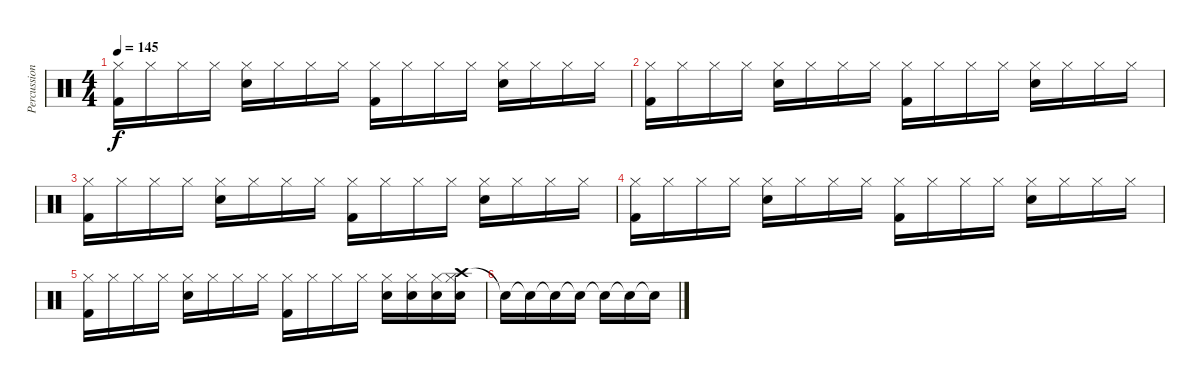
\track ("Percussion" "Percussion") {instrument percussion}
\staff {score}
\articulation defaults
\ts (4 4)
\tempo 145
\clef neutral
\ks c
("Hi-Hat (closed)" "Kick (hit) 2").16{dy f} "Hi-Hat (closed)".16 "Hi-Hat (closed)".16 "Hi-Hat (closed)".16 ("Hi-Hat (closed)" "Electric Snare (hit)").16 "Hi-Hat (closed)".16 "Hi-Hat (closed)".16 "Hi-Hat (closed)".16 ("Hi-Hat (closed)" "Kick (hit) 2").16 "Hi-Hat (closed)".16 "Hi-Hat (closed)".16 "Hi-Hat (closed)".16 ("Hi-Hat (closed)" "Electric Snare (hit)").16 "Hi-Hat (closed)".16 "Hi-Hat (closed)".16 "Hi-Hat (closed)".16 |
("Hi-Hat (closed)" "Kick (hit) 2").16 "Hi-Hat (closed)".16 "Hi-Hat (closed)".16 "Hi-Hat (closed)".16 ("Hi-Hat (closed)" "Electric Snare (hit)").16 "Hi-Hat (closed)".16 "Hi-Hat (closed)".16 "Hi-Hat (closed)".16 ("Hi-Hat (closed)" "Kick (hit) 2").16 "Hi-Hat (closed)".16 "Hi-Hat (closed)".16 "Hi-Hat (closed)".16 ("Hi-Hat (closed)" "Electric Snare (hit)").16 "Hi-Hat (closed)".16 "Hi-Hat (closed)".16 "Hi-Hat (closed)".16 |
("Hi-Hat (closed)" "Kick (hit) 2").16 "Hi-Hat (closed)".16 "Hi-Hat (closed)".16 "Hi-Hat (closed)".16 ("Hi-Hat (closed)" "Electric Snare (hit)").16 "Hi-Hat (closed)".16 "Hi-Hat (closed)".16 "Hi-Hat (closed)".16 ("Hi-Hat (closed)" "Kick (hit) 2").16 "Hi-Hat (closed)".16 "Hi-Hat (closed)".16 "Hi-Hat (closed)".16 ("Hi-Hat (closed)" "Electric Snare (hit)").16 "Hi-Hat (closed)".16 "Hi-Hat (closed)".16 "Hi-Hat (closed)".16 |
("Hi-Hat (closed)" "Kick (hit) 2").16 "Hi-Hat (closed)".16 "Hi-Hat (closed)".16 "Hi-Hat (closed)".16 ("Hi-Hat (closed)" "Electric Snare (hit)").16 "Hi-Hat (closed)".16 "Hi-Hat (closed)".16 "Hi-Hat (closed)".16 ("Hi-Hat (closed)" "Kick (hit) 2").16 "Hi-Hat (closed)".16 "Hi-Hat (closed)".16 "Hi-Hat (closed)".16 ("Hi-Hat (closed)" "Electric Snare (hit)").16 "Hi-Hat (closed)".16 "Hi-Hat (closed)".16 "Hi-Hat (closed)".16 |
("Hi-Hat (closed)" "Kick (hit) 2").16 "Hi-Hat (closed)".16 "Hi-Hat (closed)".16 "Hi-Hat (closed)".16 ("Hi-Hat (closed)" "Electric Snare (hit)").16 "Hi-Hat (closed)".16 "Hi-Hat (closed)".16 "Hi-Hat (closed)".16 ("Hi-Hat (closed)" "Kick (hit) 2").16 "Hi-Hat (closed)".16 "Hi-Hat (closed)".16 "Hi-Hat (closed)".16 ("Hi-Hat (closed)" "Electric Snare (hit)").16 ("Hi-Hat (closed)" "Electric Snare (hit)").16 ("Hi-Hat (closed)" "Electric Snare (hit)").16 ("Crash high (hit)" "Hi-Hat (closed)" "Electric Snare (hit)").16 |
"Snare (hit)"{t}.16 "Snare (hit)"{t}.16 "Snare (hit)"{t}.16 "Snare (hit)"{t}.16 "Snare (hit)"{t}.16 "Snare (hit)"{t}.16 "Snare (hit)"{t}.16
